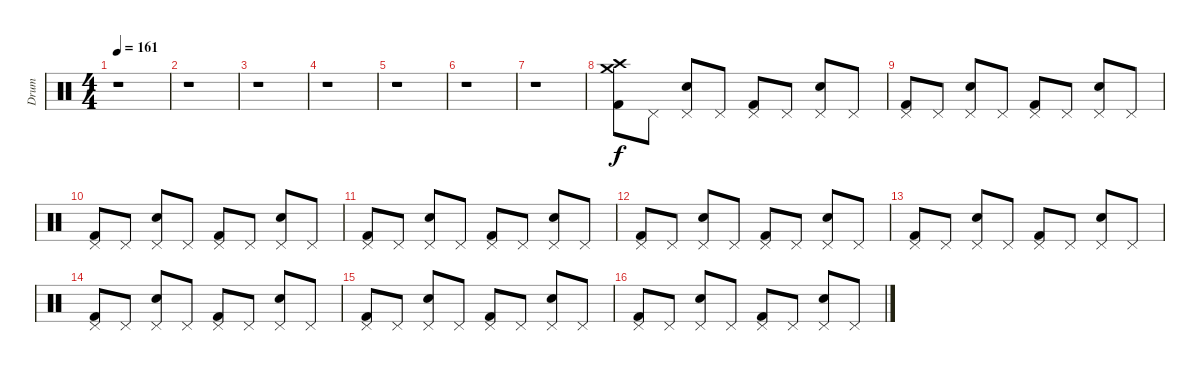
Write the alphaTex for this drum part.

\track ("Drum" "Drum") {instrument percussion}
\staff {score}
\articulation defaults
\ts (4 4)
\tempo 161
\clef neutral
\ks c
r.1{dy f} |
r.1 |
r.1 |
r.1 |
r.1 |
r.1 |
r.1 |
("Crash medium (hit)" "Crash high (hit)" "Kick (hit) 2").8 "Pedal Hi-Hat (hit)".8 ("Pedal Hi-Hat (hit)" "Snare (hit) 2").8 "Pedal Hi-Hat (hit)".8 ("Pedal Hi-Hat (hit)" "Kick (hit) 2").8 "Pedal Hi-Hat (hit)".8 ("Pedal Hi-Hat (hit)" "Snare (hit) 2").8 "Pedal Hi-Hat (hit)".8 |
("Pedal Hi-Hat (hit)" "Kick (hit) 2").8 "Pedal Hi-Hat (hit)".8 ("Pedal Hi-Hat (hit)" "Snare (hit) 2").8 "Pedal Hi-Hat (hit)".8 ("Pedal Hi-Hat (hit)" "Kick (hit) 2").8 "Pedal Hi-Hat (hit)".8 ("Pedal Hi-Hat (hit)" "Snare (hit) 2").8 "Pedal Hi-Hat (hit)".8 |
("Pedal Hi-Hat (hit)" "Kick (hit) 2").8 "Pedal Hi-Hat (hit)".8 ("Pedal Hi-Hat (hit)" "Snare (hit) 2").8 "Pedal Hi-Hat (hit)".8 ("Pedal Hi-Hat (hit)" "Kick (hit) 2").8 "Pedal Hi-Hat (hit)".8 ("Pedal Hi-Hat (hit)" "Snare (hit) 2").8 "Pedal Hi-Hat (hit)".8 |
("Pedal Hi-Hat (hit)" "Kick (hit) 2").8 "Pedal Hi-Hat (hit)".8 ("Pedal Hi-Hat (hit)" "Snare (hit) 2").8 "Pedal Hi-Hat (hit)".8 ("Pedal Hi-Hat (hit)" "Kick (hit) 2").8 "Pedal Hi-Hat (hit)".8 ("Pedal Hi-Hat (hit)" "Snare (hit) 2").8 "Pedal Hi-Hat (hit)".8 |
("Pedal Hi-Hat (hit)" "Kick (hit) 2").8 "Pedal Hi-Hat (hit)".8 ("Pedal Hi-Hat (hit)" "Snare (hit) 2").8 "Pedal Hi-Hat (hit)".8 ("Pedal Hi-Hat (hit)" "Kick (hit) 2").8 "Pedal Hi-Hat (hit)".8 ("Pedal Hi-Hat (hit)" "Snare (hit) 2").8 "Pedal Hi-Hat (hit)".8 |
("Pedal Hi-Hat (hit)" "Kick (hit) 2").8 "Pedal Hi-Hat (hit)".8 ("Pedal Hi-Hat (hit)" "Snare (hit) 2").8 "Pedal Hi-Hat (hit)".8 ("Pedal Hi-Hat (hit)" "Kick (hit) 2").8 "Pedal Hi-Hat (hit)".8 ("Pedal Hi-Hat (hit)" "Snare (hit) 2").8 "Pedal Hi-Hat (hit)".8 |
("Pedal Hi-Hat (hit)" "Kick (hit) 2").8 "Pedal Hi-Hat (hit)".8 ("Pedal Hi-Hat (hit)" "Snare (hit) 2").8 "Pedal Hi-Hat (hit)".8 ("Pedal Hi-Hat (hit)" "Kick (hit) 2").8 "Pedal Hi-Hat (hit)".8 ("Pedal Hi-Hat (hit)" "Snare (hit) 2").8 "Pedal Hi-Hat (hit)".8 |
("Pedal Hi-Hat (hit)" "Kick (hit) 2").8 "Pedal Hi-Hat (hit)".8 ("Pedal Hi-Hat (hit)" "Snare (hit) 2").8 "Pedal Hi-Hat (hit)".8 ("Pedal Hi-Hat (hit)" "Kick (hit) 2").8 "Pedal Hi-Hat (hit)".8 ("Pedal Hi-Hat (hit)" "Snare (hit) 2").8 "Pedal Hi-Hat (hit)".8 |
("Pedal Hi-Hat (hit)" "Kick (hit) 2").8 "Pedal Hi-Hat (hit)".8 ("Pedal Hi-Hat (hit)" "Snare (hit) 2").8 "Pedal Hi-Hat (hit)".8 ("Pedal Hi-Hat (hit)" "Kick (hit) 2").8 "Pedal Hi-Hat (hit)".8 ("Pedal Hi-Hat (hit)" "Snare (hit) 2").8 "Pedal Hi-Hat (hit)".8
